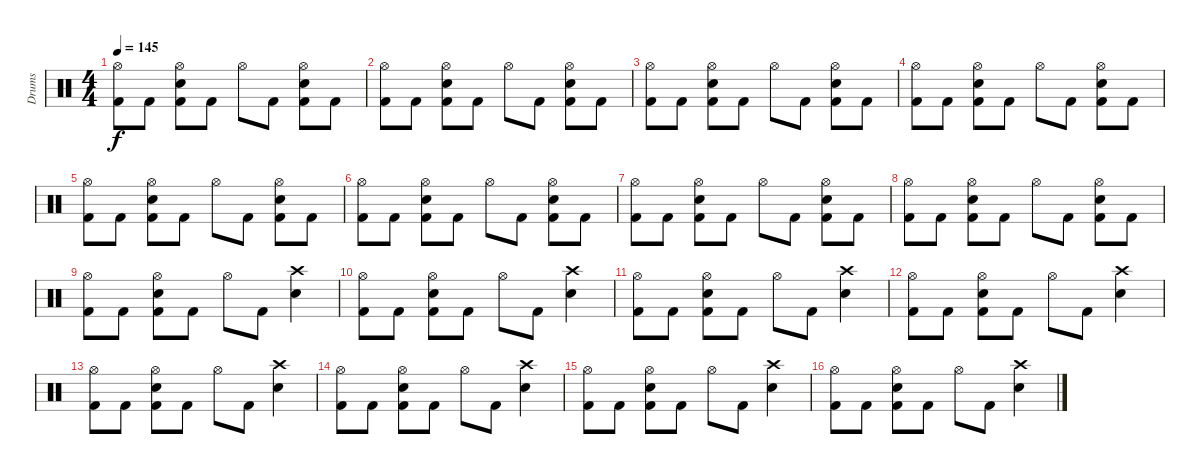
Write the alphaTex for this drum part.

\track ("Drums" "Drums") {instrument percussion}
\staff {score}
\articulation defaults
\ts (4 4)
\tempo 145
\clef neutral
\ks c
("Hi-Hat (open)" "Kick (hit) 2").8{dy f} "Kick (hit) 2".8 ("Hi-Hat (open)" "Snare (hit) 2" "Kick (hit) 2").8 "Kick (hit) 2".8 "Hi-Hat (open)".8 "Kick (hit) 2".8 ("Hi-Hat (open)" "Snare (hit) 2" "Kick (hit) 2").8 "Kick (hit) 2".8 |
("Hi-Hat (open)" "Kick (hit) 2").8 "Kick (hit) 2".8 ("Hi-Hat (open)" "Snare (hit) 2" "Kick (hit) 2").8 "Kick (hit) 2".8 "Hi-Hat (open)".8 "Kick (hit) 2".8 ("Hi-Hat (open)" "Snare (hit) 2" "Kick (hit) 2").8 "Kick (hit) 2".8 |
("Hi-Hat (open)" "Kick (hit) 2").8 "Kick (hit) 2".8 ("Hi-Hat (open)" "Snare (hit) 2" "Kick (hit) 2").8 "Kick (hit) 2".8 "Hi-Hat (open)".8 "Kick (hit) 2".8 ("Hi-Hat (open)" "Snare (hit) 2" "Kick (hit) 2").8 "Kick (hit) 2".8 |
("Hi-Hat (open)" "Kick (hit) 2").8 "Kick (hit) 2".8 ("Hi-Hat (open)" "Snare (hit) 2" "Kick (hit) 2").8 "Kick (hit) 2".8 "Hi-Hat (open)".8 "Kick (hit) 2".8 ("Hi-Hat (open)" "Snare (hit) 2" "Kick (hit) 2").8 "Kick (hit) 2".8 |
("Hi-Hat (open)" "Kick (hit) 2").8 "Kick (hit) 2".8 ("Hi-Hat (open)" "Snare (hit) 2" "Kick (hit) 2").8 "Kick (hit) 2".8 "Hi-Hat (open)".8 "Kick (hit) 2".8 ("Hi-Hat (open)" "Snare (hit) 2" "Kick (hit) 2").8 "Kick (hit) 2".8 |
("Hi-Hat (open)" "Kick (hit) 2").8 "Kick (hit) 2".8 ("Hi-Hat (open)" "Snare (hit) 2" "Kick (hit) 2").8 "Kick (hit) 2".8 "Hi-Hat (open)".8 "Kick (hit) 2".8 ("Hi-Hat (open)" "Snare (hit) 2" "Kick (hit) 2").8 "Kick (hit) 2".8 |
("Hi-Hat (open)" "Kick (hit) 2").8 "Kick (hit) 2".8 ("Hi-Hat (open)" "Snare (hit) 2" "Kick (hit) 2").8 "Kick (hit) 2".8 "Hi-Hat (open)".8 "Kick (hit) 2".8 ("Hi-Hat (open)" "Snare (hit) 2" "Kick (hit) 2").8 "Kick (hit) 2".8 |
("Hi-Hat (open)" "Kick (hit) 2").8 "Kick (hit) 2".8 ("Hi-Hat (open)" "Snare (hit) 2" "Kick (hit) 2").8 "Kick (hit) 2".8 "Hi-Hat (open)".8 "Kick (hit) 2".8 ("Hi-Hat (open)" "Snare (hit) 2" "Kick (hit) 2").8 "Kick (hit) 2".8 |
("Hi-Hat (open)" "Kick (hit) 2").8 "Kick (hit) 2".8 ("Hi-Hat (open)" "Snare (hit) 2" "Kick (hit) 2").8 "Kick (hit) 2".8 "Hi-Hat (open)".8 "Kick (hit) 2".8 ("Crash high (hit)" "Snare (hit) 2").4 |
("Hi-Hat (open)" "Kick (hit) 2").8 "Kick (hit) 2".8 ("Hi-Hat (open)" "Snare (hit) 2" "Kick (hit) 2").8 "Kick (hit) 2".8 "Hi-Hat (open)".8 "Kick (hit) 2".8 ("Crash high (hit)" "Snare (hit) 2").4 |
("Hi-Hat (open)" "Kick (hit) 2").8 "Kick (hit) 2".8 ("Hi-Hat (open)" "Snare (hit) 2" "Kick (hit) 2").8 "Kick (hit) 2".8 "Hi-Hat (open)".8 "Kick (hit) 2".8 ("Crash high (hit)" "Snare (hit) 2").4 |
("Hi-Hat (open)" "Kick (hit) 2").8 "Kick (hit) 2".8 ("Hi-Hat (open)" "Snare (hit) 2" "Kick (hit) 2").8 "Kick (hit) 2".8 "Hi-Hat (open)".8 "Kick (hit) 2".8 ("Crash high (hit)" "Snare (hit) 2").4 |
("Hi-Hat (open)" "Kick (hit) 2").8 "Kick (hit) 2".8 ("Hi-Hat (open)" "Snare (hit) 2" "Kick (hit) 2").8 "Kick (hit) 2".8 "Hi-Hat (open)".8 "Kick (hit) 2".8 ("Crash high (hit)" "Snare (hit) 2").4 |
("Hi-Hat (open)" "Kick (hit) 2").8 "Kick (hit) 2".8 ("Hi-Hat (open)" "Snare (hit) 2" "Kick (hit) 2").8 "Kick (hit) 2".8 "Hi-Hat (open)".8 "Kick (hit) 2".8 ("Crash high (hit)" "Snare (hit) 2").4 |
("Hi-Hat (open)" "Kick (hit) 2").8 "Kick (hit) 2".8 ("Hi-Hat (open)" "Snare (hit) 2" "Kick (hit) 2").8 "Kick (hit) 2".8 "Hi-Hat (open)".8 "Kick (hit) 2".8 ("Crash high (hit)" "Snare (hit) 2").4 |
("Hi-Hat (open)" "Kick (hit) 2").8 "Kick (hit) 2".8 ("Hi-Hat (open)" "Snare (hit) 2" "Kick (hit) 2").8 "Kick (hit) 2".8 "Hi-Hat (open)".8 "Kick (hit) 2".8 ("Crash high (hit)" "Snare (hit) 2").4
